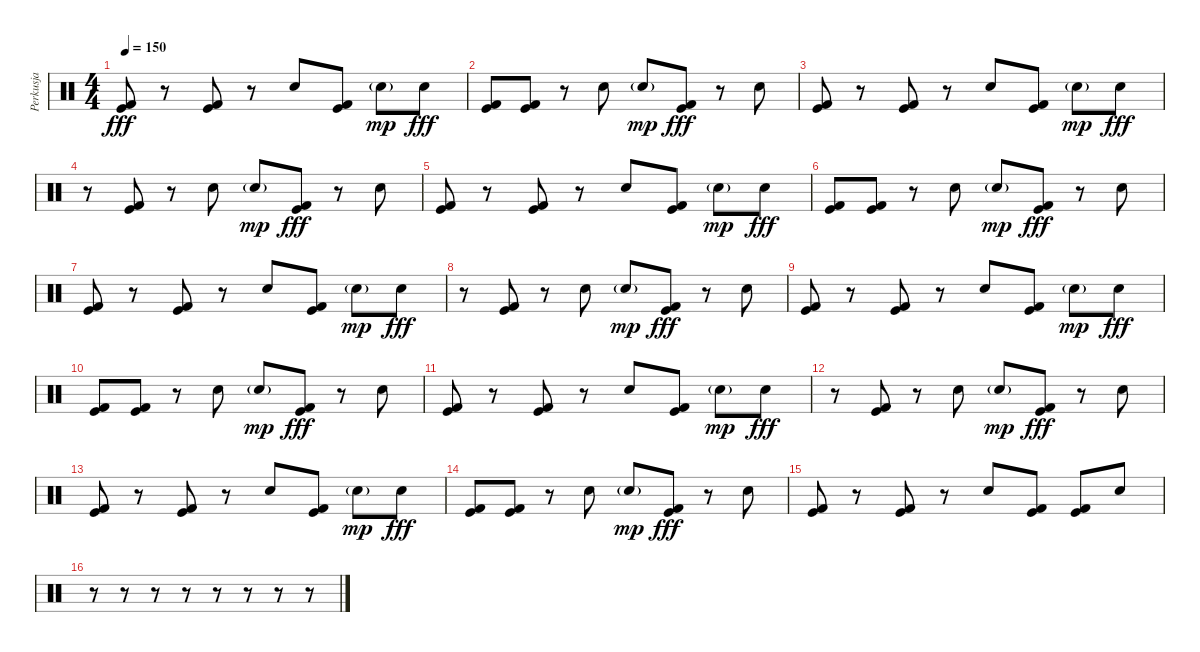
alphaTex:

\track ("Perkusja" "Perkusja") {instrument percussion}
\staff {score}
\articulation defaults
\ts (4 4)
\tempo 150
\clef neutral
\ks c
("Kick (hit)" "Kick (hit) 2").8{dy fff} r.8 ("Kick (hit)" "Kick (hit) 2").8 r.8 "Electric Snare (hit)".8 ("Kick (hit)" "Kick (hit) 2").8 "Electric Snare (hit)"{g}.8{dy mp} "Electric Snare (hit)".8{dy fff} |
("Kick (hit)" "Kick (hit) 2").8 ("Kick (hit)" "Kick (hit) 2").8 r.8 "Electric Snare (hit)".8 "Electric Snare (hit)"{g}.8{dy mp} ("Kick (hit)" "Kick (hit) 2").8{dy fff} r.8 "Electric Snare (hit)".8 |
("Kick (hit)" "Kick (hit) 2").8 r.8 ("Kick (hit)" "Kick (hit) 2").8 r.8 "Electric Snare (hit)".8 ("Kick (hit)" "Kick (hit) 2").8 "Electric Snare (hit)"{g}.8{dy mp} "Electric Snare (hit)".8{dy fff} |
r.8 ("Kick (hit)" "Kick (hit) 2").8 r.8 "Electric Snare (hit)".8 "Electric Snare (hit)"{g}.8{dy mp} ("Kick (hit)" "Kick (hit) 2").8{dy fff} r.8 "Electric Snare (hit)".8 |
("Kick (hit)" "Kick (hit) 2").8 r.8 ("Kick (hit)" "Kick (hit) 2").8 r.8 "Electric Snare (hit)".8 ("Kick (hit)" "Kick (hit) 2").8 "Electric Snare (hit)"{g}.8{dy mp} "Electric Snare (hit)".8{dy fff} |
("Kick (hit)" "Kick (hit) 2").8 ("Kick (hit)" "Kick (hit) 2").8 r.8 "Electric Snare (hit)".8 "Electric Snare (hit)"{g}.8{dy mp} ("Kick (hit)" "Kick (hit) 2").8{dy fff} r.8 "Electric Snare (hit)".8 |
("Kick (hit)" "Kick (hit) 2").8 r.8 ("Kick (hit)" "Kick (hit) 2").8 r.8 "Electric Snare (hit)".8 ("Kick (hit)" "Kick (hit) 2").8 "Electric Snare (hit)"{g}.8{dy mp} "Electric Snare (hit)".8{dy fff} |
r.8 ("Kick (hit)" "Kick (hit) 2").8 r.8 "Electric Snare (hit)".8 "Electric Snare (hit)"{g}.8{dy mp} ("Kick (hit)" "Kick (hit) 2").8{dy fff} r.8 "Electric Snare (hit)".8 |
("Kick (hit)" "Kick (hit) 2").8 r.8 ("Kick (hit)" "Kick (hit) 2").8 r.8 "Electric Snare (hit)".8 ("Kick (hit)" "Kick (hit) 2").8 "Electric Snare (hit)"{g}.8{dy mp} "Electric Snare (hit)".8{dy fff} |
("Kick (hit)" "Kick (hit) 2").8 ("Kick (hit)" "Kick (hit) 2").8 r.8 "Electric Snare (hit)".8 "Electric Snare (hit)"{g}.8{dy mp} ("Kick (hit)" "Kick (hit) 2").8{dy fff} r.8 "Electric Snare (hit)".8 |
("Kick (hit)" "Kick (hit) 2").8 r.8 ("Kick (hit)" "Kick (hit) 2").8 r.8 "Electric Snare (hit)".8 ("Kick (hit)" "Kick (hit) 2").8 "Electric Snare (hit)"{g}.8{dy mp} "Electric Snare (hit)".8{dy fff} |
r.8 ("Kick (hit)" "Kick (hit) 2").8 r.8 "Electric Snare (hit)".8 "Electric Snare (hit)"{g}.8{dy mp} ("Kick (hit)" "Kick (hit) 2").8{dy fff} r.8 "Electric Snare (hit)".8 |
("Kick (hit)" "Kick (hit) 2").8 r.8 ("Kick (hit)" "Kick (hit) 2").8 r.8 "Electric Snare (hit)".8 ("Kick (hit)" "Kick (hit) 2").8 "Electric Snare (hit)"{g}.8{dy mp} "Electric Snare (hit)".8{dy fff} |
("Kick (hit)" "Kick (hit) 2").8 ("Kick (hit)" "Kick (hit) 2").8 r.8 "Electric Snare (hit)".8 "Electric Snare (hit)"{g}.8{dy mp} ("Kick (hit)" "Kick (hit) 2").8{dy fff} r.8 "Electric Snare (hit)".8 |
("Kick (hit)" "Kick (hit) 2").8 r.8 ("Kick (hit)" "Kick (hit) 2").8 r.8 "Electric Snare (hit)".8 ("Kick (hit)" "Kick (hit) 2").8 ("Kick (hit)" "Kick (hit) 2").8 "Electric Snare (hit)".8 |
r.8 r.8 r.8 r.8 r.8 r.8 r.8 r.8
